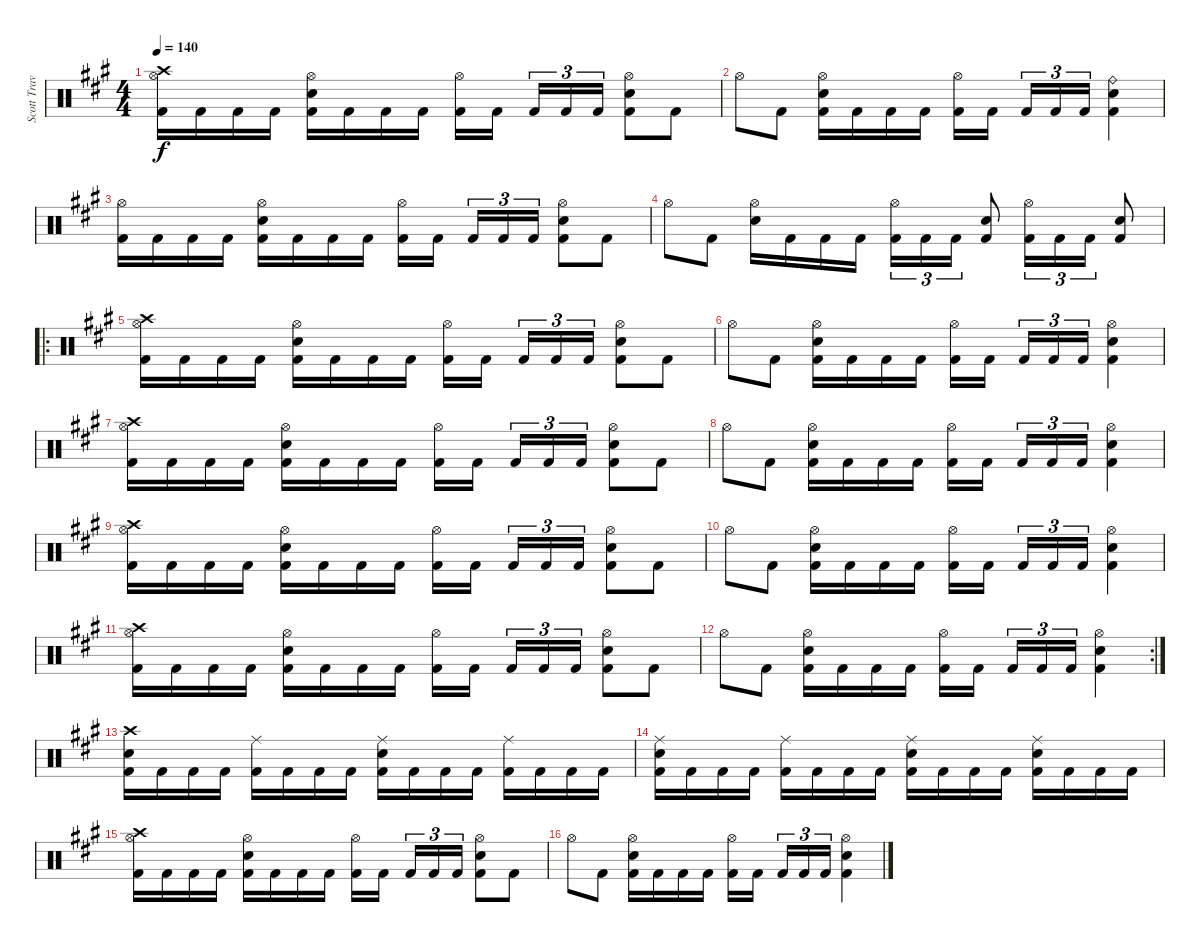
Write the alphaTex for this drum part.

\track ("Scott Travis" "Scott Trav") {instrument percussion}
\staff {score}
\articulation defaults
\ts (4 4)
\tempo 140
\clef neutral
\ks f#minor
("Hi-Hat (open)" "Crash high (hit)" "Kick (hit) 2").16{dy f} "Kick (hit) 2".16 "Kick (hit) 2".16 "Kick (hit) 2".16 ("Hi-Hat (open)" "Electric Snare (hit)" "Kick (hit) 2").16 "Kick (hit) 2".16 "Kick (hit) 2".16 "Kick (hit) 2".16 ("Hi-Hat (open)" "Kick (hit) 2").16 "Kick (hit) 2".16{beam splitsecondary} "Kick (hit) 2".16{tu (3 2)} "Kick (hit) 2".16{tu (3 2)} "Kick (hit) 2".16{tu (3 2)} ("Hi-Hat (open)" "Electric Snare (hit)" "Kick (hit) 2").8 "Kick (hit) 2".8 |
"Hi-Hat (open)".8 "Kick (hit) 2".8 ("Hi-Hat (open)" "Electric Snare (hit)" "Kick (hit) 2").16 "Kick (hit) 2".16 "Kick (hit) 2".16 "Kick (hit) 2".16 ("Hi-Hat (open)" "Kick (hit) 2").16 "Kick (hit) 2".16{beam splitsecondary} "Kick (hit) 2".16{tu (3 2)} "Kick (hit) 2".16{tu (3 2)} "Kick (hit) 2".16{tu (3 2)} ("Ride (bell)" "Electric Snare (hit)" "Kick (hit) 2").4 |
("Hi-Hat (open)" "Kick (hit) 2").16 "Kick (hit) 2".16 "Kick (hit) 2".16 "Kick (hit) 2".16 ("Hi-Hat (open)" "Electric Snare (hit)" "Kick (hit) 2").16 "Kick (hit) 2".16 "Kick (hit) 2".16 "Kick (hit) 2".16 ("Hi-Hat (open)" "Kick (hit) 2").16 "Kick (hit) 2".16{beam splitsecondary} "Kick (hit) 2".16{tu (3 2)} "Kick (hit) 2".16{tu (3 2)} "Kick (hit) 2".16{tu (3 2)} ("Hi-Hat (open)" "Electric Snare (hit)" "Kick (hit) 2").8 "Kick (hit) 2".8 |
"Hi-Hat (open)".8 "Kick (hit) 2".8 ("Hi-Hat (open)" "Electric Snare (hit)").16 "Kick (hit) 2".16 "Kick (hit) 2".16 "Kick (hit) 2".16 ("Hi-Hat (open)" "Kick (hit) 2").16{tu (3 2)} "Kick (hit) 2".16{tu (3 2)} "Kick (hit) 2".16{tu (3 2)} ("Electric Snare (hit)" "Kick (hit) 2").8 ("Hi-Hat (open)" "Kick (hit) 2").16{tu (3 2)} "Kick (hit) 2".16{tu (3 2)} "Kick (hit) 2".16{tu (3 2)} ("Snare (hit) 2" "Kick (hit) 2").8 |
\ro
("Hi-Hat (open)" "Crash high (hit)" "Kick (hit) 2").16 "Kick (hit) 2".16 "Kick (hit) 2".16 "Kick (hit) 2".16 ("Hi-Hat (open)" "Electric Snare (hit)" "Kick (hit) 2").16 "Kick (hit) 2".16 "Kick (hit) 2".16 "Kick (hit) 2".16 ("Hi-Hat (open)" "Kick (hit) 2").16 "Kick (hit) 2".16{beam splitsecondary} "Kick (hit) 2".16{tu (3 2)} "Kick (hit) 2".16{tu (3 2)} "Kick (hit) 2".16{tu (3 2)} ("Hi-Hat (open)" "Electric Snare (hit)" "Kick (hit) 2").8 "Kick (hit) 2".8 |
"Hi-Hat (open)".8 "Kick (hit) 2".8 ("Hi-Hat (open)" "Electric Snare (hit)" "Kick (hit) 2").16 "Kick (hit) 2".16 "Kick (hit) 2".16 "Kick (hit) 2".16 ("Hi-Hat (open)" "Kick (hit) 2").16 "Kick (hit) 2".16{beam splitsecondary} "Kick (hit) 2".16{tu (3 2)} "Kick (hit) 2".16{tu (3 2)} "Kick (hit) 2".16{tu (3 2)} ("Hi-Hat (open)" "Electric Snare (hit)" "Kick (hit) 2").4 |
("Hi-Hat (open)" "Crash high (hit)" "Kick (hit) 2").16 "Kick (hit) 2".16 "Kick (hit) 2".16 "Kick (hit) 2".16 ("Hi-Hat (open)" "Electric Snare (hit)" "Kick (hit) 2").16 "Kick (hit) 2".16 "Kick (hit) 2".16 "Kick (hit) 2".16 ("Hi-Hat (open)" "Kick (hit) 2").16 "Kick (hit) 2".16{beam splitsecondary} "Kick (hit) 2".16{tu (3 2)} "Kick (hit) 2".16{tu (3 2)} "Kick (hit) 2".16{tu (3 2)} ("Hi-Hat (open)" "Electric Snare (hit)" "Kick (hit) 2").8 "Kick (hit) 2".8 |
"Hi-Hat (open)".8 "Kick (hit) 2".8 ("Hi-Hat (open)" "Electric Snare (hit)" "Kick (hit) 2").16 "Kick (hit) 2".16 "Kick (hit) 2".16 "Kick (hit) 2".16 ("Hi-Hat (open)" "Kick (hit) 2").16 "Kick (hit) 2".16{beam splitsecondary} "Kick (hit) 2".16{tu (3 2)} "Kick (hit) 2".16{tu (3 2)} "Kick (hit) 2".16{tu (3 2)} ("Hi-Hat (open)" "Electric Snare (hit)" "Kick (hit) 2").4 |
("Hi-Hat (open)" "Crash high (hit)" "Kick (hit) 2").16 "Kick (hit) 2".16 "Kick (hit) 2".16 "Kick (hit) 2".16 ("Hi-Hat (open)" "Electric Snare (hit)" "Kick (hit) 2").16 "Kick (hit) 2".16 "Kick (hit) 2".16 "Kick (hit) 2".16 ("Hi-Hat (open)" "Kick (hit) 2").16 "Kick (hit) 2".16{beam splitsecondary} "Kick (hit) 2".16{tu (3 2)} "Kick (hit) 2".16{tu (3 2)} "Kick (hit) 2".16{tu (3 2)} ("Hi-Hat (open)" "Electric Snare (hit)" "Kick (hit) 2").8 "Kick (hit) 2".8 |
"Hi-Hat (open)".8 "Kick (hit) 2".8 ("Hi-Hat (open)" "Electric Snare (hit)" "Kick (hit) 2").16 "Kick (hit) 2".16 "Kick (hit) 2".16 "Kick (hit) 2".16 ("Hi-Hat (open)" "Kick (hit) 2").16 "Kick (hit) 2".16{beam splitsecondary} "Kick (hit) 2".16{tu (3 2)} "Kick (hit) 2".16{tu (3 2)} "Kick (hit) 2".16{tu (3 2)} ("Hi-Hat (open)" "Electric Snare (hit)" "Kick (hit) 2").4 |
("Hi-Hat (open)" "Crash high (hit)" "Kick (hit) 2").16 "Kick (hit) 2".16 "Kick (hit) 2".16 "Kick (hit) 2".16 ("Hi-Hat (open)" "Electric Snare (hit)" "Kick (hit) 2").16 "Kick (hit) 2".16 "Kick (hit) 2".16 "Kick (hit) 2".16 ("Hi-Hat (open)" "Kick (hit) 2").16 "Kick (hit) 2".16{beam splitsecondary} "Kick (hit) 2".16{tu (3 2)} "Kick (hit) 2".16{tu (3 2)} "Kick (hit) 2".16{tu (3 2)} ("Hi-Hat (open)" "Electric Snare (hit)" "Kick (hit) 2").8 "Kick (hit) 2".8 |
\rc 2 "Hi-Hat (open)".8 "Kick (hit) 2".8
("Hi-Hat (open)" "Electric Snare (hit)" "Kick (hit) 2").16 "Kick (hit) 2".16 "Kick (hit) 2".16 "Kick (hit) 2".16 ("Hi-Hat (open)" "Kick (hit) 2").16 "Kick (hit) 2".16{beam splitsecondary} "Kick (hit) 2".16{tu (3 2)} "Kick (hit) 2".16{tu (3 2)} "Kick (hit) 2".16{tu (3 2)} ("Hi-Hat (open)" "Electric Snare (hit)" "Kick (hit) 2").4 |
("Crash high (hit)" "Snare (hit) 2" "Kick (hit) 2").16 "Kick (hit) 2".16 "Kick (hit) 2".16 "Kick (hit) 2".16 ("Ride (middle)" "Kick (hit) 2").16 "Kick (hit) 2".16 "Kick (hit) 2".16 "Kick (hit) 2".16 ("Ride (middle)" "Snare (hit) 2" "Kick (hit) 2").16 "Kick (hit) 2".16 "Kick (hit) 2".16 "Kick (hit) 2".16 ("Ride (middle)" "Kick (hit) 2").16 "Kick (hit) 2".16 "Kick (hit) 2".16 "Kick (hit) 2".16 |
("Ride (middle)" "Snare (hit) 2" "Kick (hit) 2").16 "Kick (hit) 2".16 "Kick (hit) 2".16 "Kick (hit) 2".16 ("Ride (middle)" "Kick (hit) 2").16 "Kick (hit) 2".16 "Kick (hit) 2".16 "Kick (hit) 2".16 ("Ride (middle)" "Snare (hit) 2" "Kick (hit) 2").16 "Kick (hit) 2".16 "Kick (hit) 2".16 "Kick (hit) 2".16 ("Ride (middle)" "Snare (hit) 2" "Kick (hit) 2").16 "Kick (hit) 2".16 "Kick (hit) 2".16 "Kick (hit) 2".16 |
("Hi-Hat (open)" "Crash high (hit)" "Kick (hit) 2").16 "Kick (hit) 2".16 "Kick (hit) 2".16 "Kick (hit) 2".16 ("Hi-Hat (open)" "Snare (hit) 2" "Kick (hit) 2").16 "Kick (hit) 2".16 "Kick (hit) 2".16 "Kick (hit) 2".16 ("Hi-Hat (open)" "Kick (hit) 2").16 "Kick (hit) 2".16{beam splitsecondary} "Kick (hit) 2".16{tu (3 2)} "Kick (hit) 2".16{tu (3 2)} "Kick (hit) 2".16{tu (3 2)} ("Hi-Hat (open)" "Snare (hit) 2" "Kick (hit) 2").8 "Kick (hit) 2".8 |
"Hi-Hat (open)".8 "Kick (hit) 2".8 ("Hi-Hat (open)" "Snare (hit) 2" "Kick (hit) 2").16 "Kick (hit) 2".16 "Kick (hit) 2".16 "Kick (hit) 2".16 ("Hi-Hat (open)" "Kick (hit) 2").16 "Kick (hit) 2".16{beam splitsecondary} "Kick (hit) 2".16{tu (3 2)} "Kick (hit) 2".16{tu (3 2)} "Kick (hit) 2".16{tu (3 2)} ("Hi-Hat (open)" "Snare (hit) 2" "Kick (hit) 2").4
